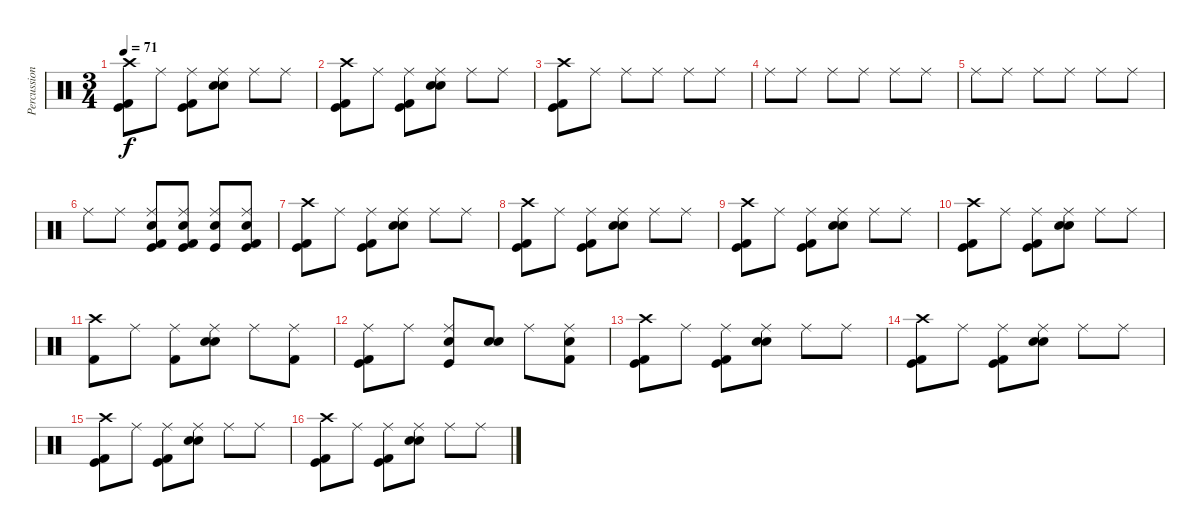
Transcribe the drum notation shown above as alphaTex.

\track ("Percussion" "Percussion") {instrument percussion}
\staff {score}
\articulation defaults
\ts (3 4)
\tempo 71
\clef neutral
\ks c
("Kick (hit)" "Kick (hit) 2" "Crash high (hit)").8{dy f} "Ride (middle)".8 ("Kick (hit) 2" "Kick (hit)" "Ride (middle)").8 ("Ride (middle)" "Electric Snare (hit)" "Snare (hit) 2").8 "Ride (middle)".8 "Ride (middle)".8 |
("Kick (hit)" "Kick (hit) 2" "Crash high (hit)").8 "Ride (middle)".8 ("Kick (hit) 2" "Kick (hit)" "Ride (middle)").8 ("Ride (middle)" "Electric Snare (hit)" "Snare (hit) 2").8 "Ride (middle)".8 "Ride (middle)".8 |
("Kick (hit)" "Kick (hit) 2" "Crash high (hit)").8 "Ride (middle)".8 "Ride (middle)".8 "Ride (middle)".8 "Ride (middle)".8 "Ride (middle)".8 |
"Ride (middle)".8 "Ride (middle)".8 "Ride (middle)".8 "Ride (middle)".8 "Ride (middle)".8 "Ride (middle)".8 |
"Ride (middle)".8 "Ride (middle)".8 "Ride (middle)".8 "Ride (middle)".8 "Ride (middle)".8 "Ride (middle)".8 |
"Ride (middle)".8 "Ride (middle)".8 ("Kick (hit) 2" "Kick (hit)" "Ride (middle)" "Electric Snare (hit)").8 ("Kick (hit) 2" "Kick (hit)" "Ride (middle)" "Electric Snare (hit)").8 ("Kick (hit)" "Ride (middle)" "Electric Snare (hit)").8 ("Kick (hit) 2" "Kick (hit)" "Ride (middle)" "Electric Snare (hit)").8 |
("Kick (hit)" "Kick (hit) 2" "Crash high (hit)").8 "Ride (middle)".8 ("Kick (hit) 2" "Kick (hit)" "Ride (middle)").8 ("Ride (middle)" "Electric Snare (hit)" "Snare (hit) 2").8 "Ride (middle)".8 "Ride (middle)".8 |
("Kick (hit)" "Kick (hit) 2" "Crash high (hit)").8 "Ride (middle)".8 ("Kick (hit) 2" "Kick (hit)" "Ride (middle)").8 ("Ride (middle)" "Electric Snare (hit)" "Snare (hit) 2").8 "Ride (middle)".8 "Ride (middle)".8 |
("Kick (hit)" "Kick (hit) 2" "Crash high (hit)").8 "Ride (middle)".8 ("Kick (hit) 2" "Kick (hit)" "Ride (middle)").8 ("Ride (middle)" "Electric Snare (hit)" "Snare (hit) 2").8 "Ride (middle)".8 "Ride (middle)".8 |
("Kick (hit)" "Kick (hit) 2" "Crash high (hit)").8 "Ride (middle)".8 ("Kick (hit) 2" "Kick (hit)" "Ride (middle)").8 ("Ride (middle)" "Electric Snare (hit)" "Snare (hit) 2").8 "Ride (middle)".8 "Ride (middle)".8 |
("Kick (hit) 2" "Crash high (hit)").8 "Ride (middle)".8 ("Kick (hit) 2" "Ride (middle)").8 ("Ride (middle)" "Electric Snare (hit)" "Snare (hit) 2").8 "Ride (middle)".8 ("Kick (hit) 2" "Ride (middle)").8 |
("Ride (middle)" "Kick (hit) 2" "Kick (hit)").8 "Ride (middle)".8 ("Kick (hit)" "Snare (hit) 2" "Ride (middle)").8 ("Electric Snare (hit)" "Snare (hit) 2").8 "Ride (middle)".8 ("Kick (hit) 2" "Snare (hit) 2" "Ride (middle)").8 |
("Kick (hit)" "Kick (hit) 2" "Crash high (hit)").8 "Ride (middle)".8 ("Kick (hit) 2" "Kick (hit)" "Ride (middle)").8 ("Ride (middle)" "Electric Snare (hit)" "Snare (hit) 2").8 "Ride (middle)".8 "Ride (middle)".8 |
("Kick (hit)" "Kick (hit) 2" "Crash high (hit)").8 "Ride (middle)".8 ("Kick (hit) 2" "Kick (hit)" "Ride (middle)").8 ("Ride (middle)" "Electric Snare (hit)" "Snare (hit) 2").8 "Ride (middle)".8 "Ride (middle)".8 |
("Kick (hit)" "Kick (hit) 2" "Crash high (hit)").8 "Ride (middle)".8 ("Kick (hit) 2" "Kick (hit)" "Ride (middle)").8 ("Ride (middle)" "Electric Snare (hit)" "Snare (hit) 2").8 "Ride (middle)".8 "Ride (middle)".8 |
("Kick (hit)" "Kick (hit) 2" "Crash high (hit)").8 "Ride (middle)".8 ("Kick (hit) 2" "Kick (hit)" "Ride (middle)").8 ("Ride (middle)" "Electric Snare (hit)" "Snare (hit) 2").8 "Ride (middle)".8 "Ride (middle)".8
